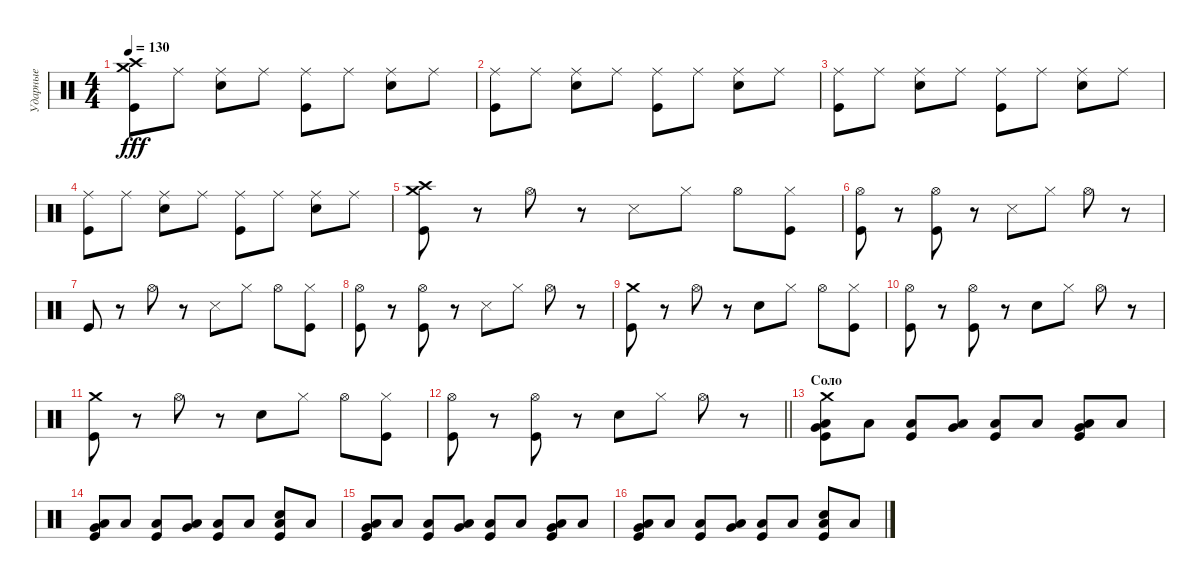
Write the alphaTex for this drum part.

\track ("Ударные" "Ударные") {instrument percussion}
\staff {score}
\articulation defaults
\ts (4 4)
\tempo 130
\clef neutral
\ks c
("Crash medium (hit)" "Crash high (hit)" "Kick (hit)").8{dy fff} "Ride (middle)".8 ("Ride (middle)" "Electric Snare (hit)").8 "Ride (middle)".8 ("Ride (middle)" "Kick (hit)").8 "Ride (middle)".8 ("Ride (middle)" "Electric Snare (hit)").8 "Ride (middle)".8 |
("Ride (middle)" "Kick (hit)").8 "Ride (middle)".8 ("Ride (middle)" "Electric Snare (hit)").8 "Ride (middle)".8 ("Ride (middle)" "Kick (hit)").8 "Ride (middle)".8 ("Ride (middle)" "Electric Snare (hit)").8 "Ride (middle)".8 |
("Ride (middle)" "Kick (hit)").8 "Ride (middle)".8 ("Ride (middle)" "Electric Snare (hit)").8 "Ride (middle)".8 ("Ride (middle)" "Kick (hit)").8 "Ride (middle)".8 ("Ride (middle)" "Electric Snare (hit)").8 "Ride (middle)".8 |
("Ride (middle)" "Kick (hit)").8 "Ride (middle)".8 ("Ride (middle)" "Electric Snare (hit)").8 "Ride (middle)".8 ("Ride (middle)" "Kick (hit)").8 "Ride (middle)".8 ("Ride (middle)" "Electric Snare (hit)").8 "Ride (middle)".8 |
("Crash medium (hit)" "Kick (hit)" "Crash high (hit)").8 r.8 "Hi-Hat (open)".8 r.8 "Snare (side stick) 3".8 "Hi-Hat (closed)".8 "Hi-Hat (open)".8 ("Kick (hit)" "Hi-Hat (closed)").8 |
("Kick (hit)" "Hi-Hat (open)").8 r.8 ("Kick (hit)" "Hi-Hat (open)").8 r.8 "Snare (side stick) 3".8 "Hi-Hat (closed)".8 "Hi-Hat (open)".8 r.8 |
"Kick (hit)".8 r.8 "Hi-Hat (open)".8 r.8 "Snare (side stick) 3".8 "Hi-Hat (closed)".8 "Hi-Hat (open)".8 ("Kick (hit)" "Hi-Hat (closed)").8 |
("Kick (hit)" "Hi-Hat (open)").8 r.8 ("Kick (hit)" "Hi-Hat (open)").8 r.8 "Snare (side stick) 3".8 "Hi-Hat (closed)".8 "Hi-Hat (open)".8 r.8 |
("Crash medium (hit)" "Kick (hit)").8 r.8 "Hi-Hat (open)".8 r.8 "Electric Snare (hit)".8 "Hi-Hat (closed)".8 "Hi-Hat (open)".8 ("Kick (hit)" "Hi-Hat (closed)").8 |
("Kick (hit)" "Hi-Hat (open)").8 r.8 ("Kick (hit)" "Hi-Hat (open)").8 r.8 "Electric Snare (hit)".8 "Hi-Hat (closed)".8 "Hi-Hat (open)".8 r.8 |
("Crash medium (hit)" "Kick (hit)").8 r.8 "Hi-Hat (open)".8 r.8 "Electric Snare (hit)".8 "Hi-Hat (closed)".8 "Hi-Hat (open)".8 ("Kick (hit)" "Hi-Hat (closed)").8 |
\barLineRight lightlight
("Kick (hit)" "Hi-Hat (open)").8 r.8 ("Kick (hit)" "Hi-Hat (open)").8 r.8 "Electric Snare (hit)".8 "Hi-Hat (closed)".8 "Hi-Hat (open)".8 r.8 |
\section ("" "Соло")
("Kick (hit)" "Crash medium (hit)" "Low Tom (hit)" "Very Low Tom (hit)").8 "Low Tom (hit)".8 ("Kick (hit)" "Low Tom (hit)").8 ("Low Tom (hit)" "Very Low Tom (hit)").8 ("Kick (hit)" "Low Tom (hit)").8 "Low Tom (hit)".8 ("Kick (hit)" "Low Tom (hit)" "Very Low Tom (hit)").8 "Low Tom (hit)".8 |
("Kick (hit)" "Low Tom (hit)" "Very Low Tom (hit)").8 "Low Tom (hit)".8 ("Kick (hit)" "Low Tom (hit)").8 ("Low Tom (hit)" "Very Low Tom (hit)").8 ("Kick (hit)" "Low Tom (hit)").8 "Low Tom (hit)".8 ("Kick (hit)" "Low Tom (hit)" "Electric Snare (hit)").8 "Low Tom (hit)".8 |
("Kick (hit)" "Low Tom (hit)" "Very Low Tom (hit)").8 "Low Tom (hit)".8 ("Kick (hit)" "Low Tom (hit)").8 ("Low Tom (hit)" "Very Low Tom (hit)").8 ("Kick (hit)" "Low Tom (hit)").8 "Low Tom (hit)".8 ("Kick (hit)" "Low Tom (hit)" "Very Low Tom (hit)").8 "Low Tom (hit)".8 |
("Kick (hit)" "Low Tom (hit)" "Very Low Tom (hit)").8 "Low Tom (hit)".8 ("Kick (hit)" "Low Tom (hit)").8 ("Low Tom (hit)" "Very Low Tom (hit)").8 ("Kick (hit)" "Low Tom (hit)").8 "Low Tom (hit)".8 ("Kick (hit)" "Low Tom (hit)" "Electric Snare (hit)").8 "Low Tom (hit)".8
